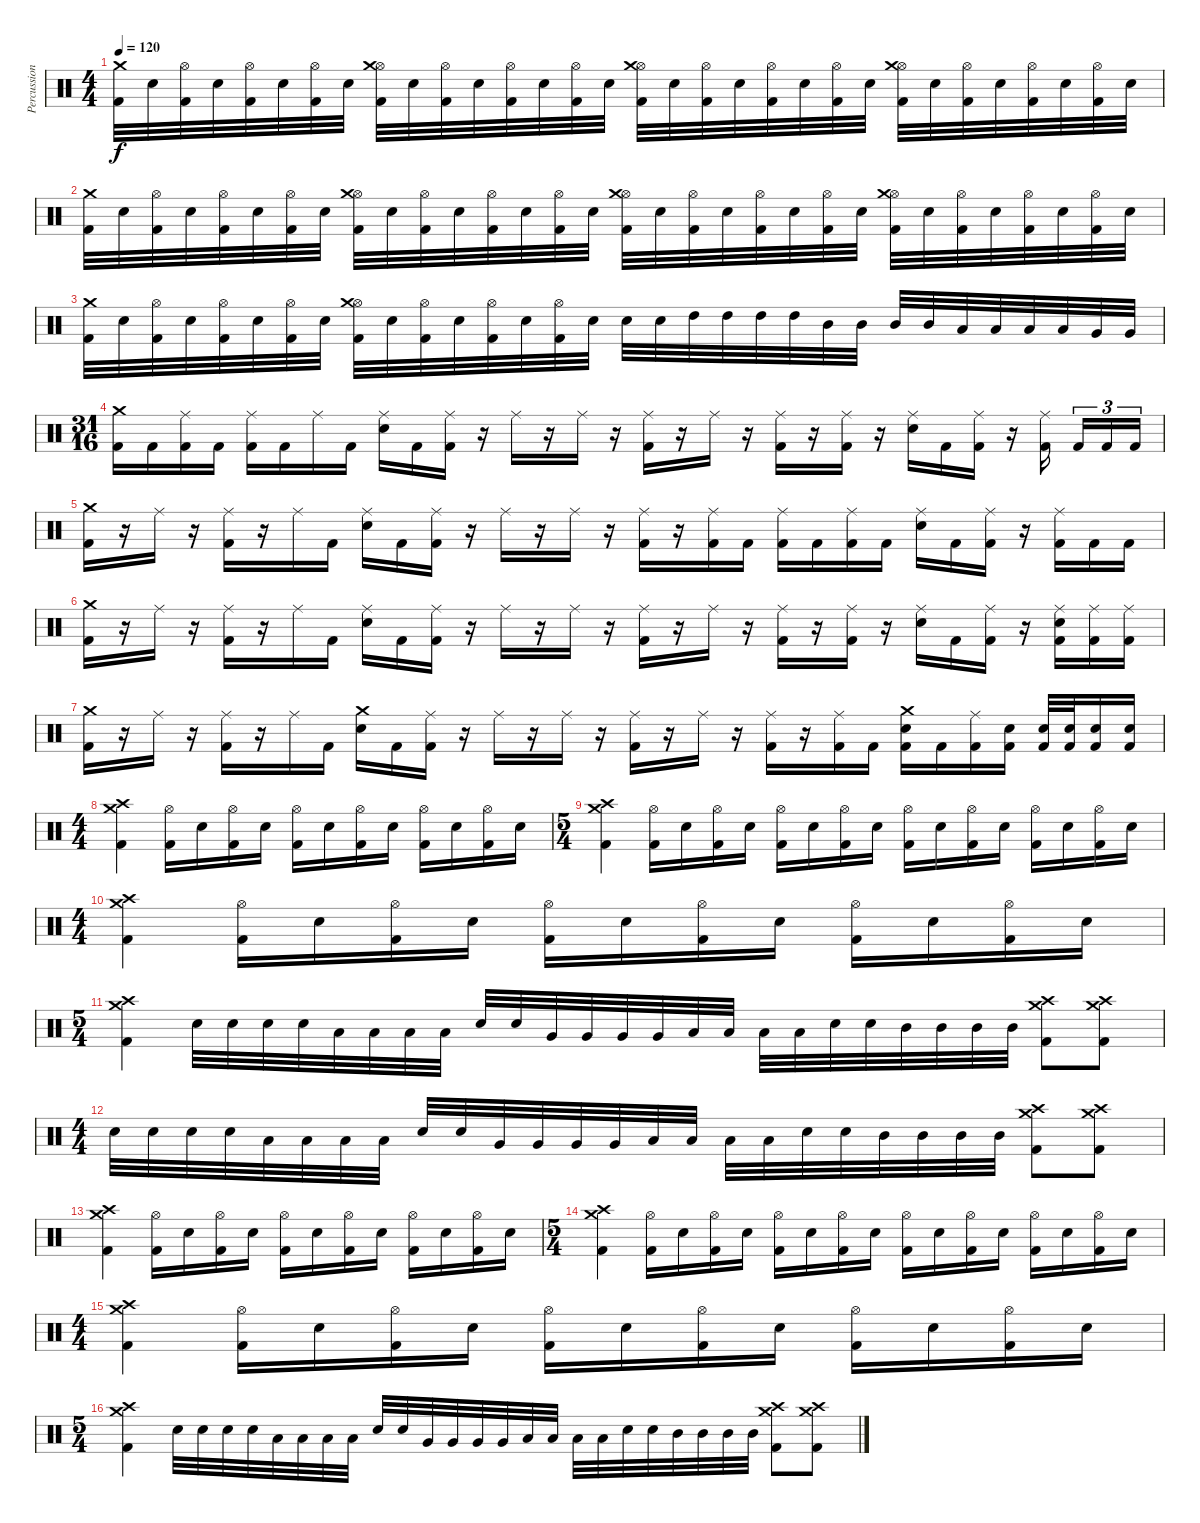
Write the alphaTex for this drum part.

\track ("Percussion" "Percussion") {instrument percussion}
\staff {score}
\articulation defaults
\ts (4 4)
\tempo 120
\clef neutral
\ks c
("Kick (hit) 2" "Crash medium (hit)").32{dy f} "Electric Snare (hit)".32 ("Kick (hit) 2" "Hi-Hat (open)").32 "Electric Snare (hit)".32 ("Kick (hit) 2" "Hi-Hat (open)").32 "Electric Snare (hit)".32 ("Kick (hit) 2" "Hi-Hat (open)").32 "Electric Snare (hit)".32 ("Kick (hit) 2" "Hi-Hat (open)" "Crash medium (hit)").32 "Electric Snare (hit)".32 ("Kick (hit) 2" "Hi-Hat (open)").32 "Electric Snare (hit)".32 ("Kick (hit) 2" "Hi-Hat (open)").32 "Electric Snare (hit)".32 ("Kick (hit) 2" "Hi-Hat (open)").32 "Electric Snare (hit)".32 ("Kick (hit) 2" "Hi-Hat (open)" "Crash medium (hit)").32 "Electric Snare (hit)".32 ("Kick (hit) 2" "Hi-Hat (open)").32 "Electric Snare (hit)".32 ("Kick (hit) 2" "Hi-Hat (open)").32 "Electric Snare (hit)".32 ("Kick (hit) 2" "Hi-Hat (open)").32 "Electric Snare (hit)".32 ("Kick (hit) 2" "Hi-Hat (open)" "Crash medium (hit)").32 "Electric Snare (hit)".32 ("Kick (hit) 2" "Hi-Hat (open)").32 "Electric Snare (hit)".32 ("Kick (hit) 2" "Hi-Hat (open)").32 "Electric Snare (hit)".32 ("Kick (hit) 2" "Hi-Hat (open)").32 "Electric Snare (hit)".32 |
("Kick (hit) 2" "Crash medium (hit)").32 "Electric Snare (hit)".32 ("Kick (hit) 2" "Hi-Hat (open)").32 "Electric Snare (hit)".32 ("Kick (hit) 2" "Hi-Hat (open)").32 "Electric Snare (hit)".32 ("Kick (hit) 2" "Hi-Hat (open)").32 "Electric Snare (hit)".32 ("Kick (hit) 2" "Hi-Hat (open)" "Crash medium (hit)").32 "Electric Snare (hit)".32 ("Kick (hit) 2" "Hi-Hat (open)").32 "Electric Snare (hit)".32 ("Kick (hit) 2" "Hi-Hat (open)").32 "Electric Snare (hit)".32 ("Kick (hit) 2" "Hi-Hat (open)").32 "Electric Snare (hit)".32 ("Kick (hit) 2" "Hi-Hat (open)" "Crash medium (hit)").32 "Electric Snare (hit)".32 ("Kick (hit) 2" "Hi-Hat (open)").32 "Electric Snare (hit)".32 ("Kick (hit) 2" "Hi-Hat (open)").32 "Electric Snare (hit)".32 ("Kick (hit) 2" "Hi-Hat (open)").32 "Electric Snare (hit)".32 ("Kick (hit) 2" "Hi-Hat (open)" "Crash medium (hit)").32 "Electric Snare (hit)".32 ("Kick (hit) 2" "Hi-Hat (open)").32 "Electric Snare (hit)".32 ("Kick (hit) 2" "Hi-Hat (open)").32 "Electric Snare (hit)".32 ("Kick (hit) 2" "Hi-Hat (open)").32 "Electric Snare (hit)".32 |
("Kick (hit) 2" "Crash medium (hit)").32 "Electric Snare (hit)".32 ("Kick (hit) 2" "Hi-Hat (open)").32 "Electric Snare (hit)".32 ("Kick (hit) 2" "Hi-Hat (open)").32 "Electric Snare (hit)".32 ("Kick (hit) 2" "Hi-Hat (open)").32 "Electric Snare (hit)".32 ("Kick (hit) 2" "Hi-Hat (open)" "Crash medium (hit)").32 "Electric Snare (hit)".32 ("Kick (hit) 2" "Hi-Hat (open)").32 "Electric Snare (hit)".32 ("Kick (hit) 2" "Hi-Hat (open)").32 "Electric Snare (hit)".32 ("Kick (hit) 2" "Hi-Hat (open)").32 "Electric Snare (hit)".32 "Electric Snare (hit)".32 "Electric Snare (hit)".32 "High Tom (hit)".32 "High Tom (hit)".32 "High Tom (hit)".32 "High Tom (hit)".32 "Mid Tom (hit)".32 "Mid Tom (hit)".32 "Mid Tom (hit)".32 "Mid Tom (hit)".32 "Low Tom (hit)".32 "Low Tom (hit)".32 "Low Tom (hit)".32 "Low Tom (hit)".32 "Very Low Tom (hit)".32 "Very Low Tom (hit)".32 |
\ts (31 16)
("Kick (hit) 2" "Crash medium (hit)").16 "Kick (hit) 2".16 ("Kick (hit) 2" "Ride (middle)").16 "Kick (hit) 2".16 ("Kick (hit) 2" "Ride (middle)").16 "Kick (hit) 2".16 "Ride (middle)".16 "Kick (hit) 2".16 ("Electric Snare (hit)" "Ride (middle)").16 "Kick (hit) 2".16 ("Kick (hit) 2" "Ride (middle)").16 r.16 "Ride (middle)".16 r.16 "Ride (middle)".16 r.16 ("Kick (hit) 2" "Ride (middle)").16 r.16 "Ride (middle)".16 r.16 ("Kick (hit) 2" "Ride (middle)").16 r.16 ("Kick (hit) 2" "Ride (middle)").16 r.16 ("Electric Snare (hit)" "Ride (middle)").16 "Kick (hit) 2".16 ("Kick (hit) 2" "Ride (middle)").16 r.16 ("Kick (hit) 2" "Ride (middle)").16 "Kick (hit) 2".16{tu (3 2)} "Kick (hit) 2".16{tu (3 2)} "Kick (hit) 2".16{tu (3 2)} |
("Kick (hit) 2" "Crash medium (hit)").16 r.16 "Ride (middle)".16 r.16 ("Kick (hit) 2" "Ride (middle)").16 r.16 "Ride (middle)".16 "Kick (hit) 2".16 ("Electric Snare (hit)" "Ride (middle)").16 "Kick (hit) 2".16 ("Kick (hit) 2" "Ride (middle)").16 r.16 "Ride (middle)".16 r.16 "Ride (middle)".16 r.16 ("Kick (hit) 2" "Ride (middle)").16 r.16 ("Kick (hit) 2" "Ride (middle)").16 "Kick (hit) 2".16 ("Kick (hit) 2" "Ride (middle)").16 "Kick (hit) 2".16 ("Kick (hit) 2" "Ride (middle)").16 "Kick (hit) 2".16 ("Electric Snare (hit)" "Ride (middle)").16 "Kick (hit) 2".16 ("Kick (hit) 2" "Ride (middle)").16 r.16 ("Kick (hit) 2" "Ride (middle)").16 "Kick (hit) 2".16 "Kick (hit) 2".16 |
("Kick (hit) 2" "Crash medium (hit)").16 r.16 "Ride (middle)".16 r.16 ("Kick (hit) 2" "Ride (middle)").16 r.16 "Ride (middle)".16 "Kick (hit) 2".16 ("Electric Snare (hit)" "Ride (middle)").16 "Kick (hit) 2".16 ("Kick (hit) 2" "Ride (middle)").16 r.16 "Ride (middle)".16 r.16 "Ride (middle)".16 r.16 ("Kick (hit) 2" "Ride (middle)").16 r.16 "Ride (middle)".16 r.16 ("Kick (hit) 2" "Ride (middle)").16 r.16 ("Kick (hit) 2" "Ride (middle)").16 r.16 ("Electric Snare (hit)" "Ride (middle)").16 "Kick (hit) 2".16 ("Kick (hit) 2" "Ride (middle)").16 r.16 ("Kick (hit) 2" "Electric Snare (hit)" "Ride (middle)").16 ("Kick (hit) 2" "Ride (middle)").16 ("Kick (hit) 2" "Ride (middle)").16 |
("Kick (hit) 2" "Crash medium (hit)").16 r.16 "Ride (middle)".16 r.16 ("Kick (hit) 2" "Ride (middle)").16 r.16 "Ride (middle)".16 "Kick (hit) 2".16 ("Electric Snare (hit)" "Crash medium (hit)").16 "Kick (hit) 2".16 ("Kick (hit) 2" "Ride (middle)").16 r.16 "Ride (middle)".16 r.16 "Ride (middle)".16 r.16 ("Kick (hit) 2" "Ride (middle)").16 r.16 "Ride (middle)".16 r.16 ("Kick (hit) 2" "Ride (middle)").16 r.16 ("Kick (hit) 2" "Ride (middle)").16 "Kick (hit) 2".16 ("Kick (hit) 2" "Electric Snare (hit)" "Crash medium (hit)").16 "Kick (hit) 2".16 ("Kick (hit) 2" "Ride (middle)").16 ("Kick (hit) 2" "Electric Snare (hit)").16 ("Kick (hit) 2" "Electric Snare (hit)").32 ("Kick (hit) 2" "Electric Snare (hit)").32 ("Kick (hit) 2" "Electric Snare (hit)").16 ("Kick (hit) 2" "Electric Snare (hit)").16 |
\ts (4 4)
("Kick (hit) 2" "Crash high (hit)" "Crash medium (hit)").4 ("Kick (hit) 2" "Hi-Hat (open)").16 "Electric Snare (hit)".16 ("Kick (hit) 2" "Hi-Hat (open)").16 "Electric Snare (hit)".16 ("Kick (hit) 2" "Hi-Hat (open)").16 "Electric Snare (hit)".16 ("Kick (hit) 2" "Hi-Hat (open)").16 "Electric Snare (hit)".16 ("Kick (hit) 2" "Hi-Hat (open)").16 "Electric Snare (hit)".16 ("Kick (hit) 2" "Hi-Hat (open)").16 "Electric Snare (hit)".16 |
\ts (5 4)
("Kick (hit) 2" "Crash high (hit)" "Crash medium (hit)").4 ("Kick (hit) 2" "Hi-Hat (open)").16 "Electric Snare (hit)".16 ("Kick (hit) 2" "Hi-Hat (open)").16 "Electric Snare (hit)".16 ("Kick (hit) 2" "Hi-Hat (open)").16 "Electric Snare (hit)".16 ("Kick (hit) 2" "Hi-Hat (open)").16 "Electric Snare (hit)".16 ("Kick (hit) 2" "Hi-Hat (open)").16 "Electric Snare (hit)".16 ("Kick (hit) 2" "Hi-Hat (open)").16 "Electric Snare (hit)".16 ("Kick (hit) 2" "Hi-Hat (open)").16 "Electric Snare (hit)".16 ("Kick (hit) 2" "Hi-Hat (open)").16 "Electric Snare (hit)".16 |
\ts (4 4)
("Kick (hit) 2" "Crash high (hit)" "Crash medium (hit)").4 ("Kick (hit) 2" "Hi-Hat (open)").16 "Electric Snare (hit)".16 ("Kick (hit) 2" "Hi-Hat (open)").16 "Electric Snare (hit)".16 ("Kick (hit) 2" "Hi-Hat (open)").16 "Electric Snare (hit)".16 ("Kick (hit) 2" "Hi-Hat (open)").16 "Electric Snare (hit)".16 ("Kick (hit) 2" "Hi-Hat (open)").16 "Electric Snare (hit)".16 ("Kick (hit) 2" "Hi-Hat (open)").16 "Electric Snare (hit)".16 |
\ts (5 4)
("Kick (hit) 2" "Crash high (hit)" "Crash medium (hit)").4 "Electric Snare (hit)".32 "Electric Snare (hit)".32 "Electric Snare (hit)".32 "Electric Snare (hit)".32 "Low Floor Tom (hit)".32 "Low Floor Tom (hit)".32 "Low Floor Tom (hit)".32 "Low Floor Tom (hit)".32 "Electric Snare (hit)".32 "Electric Snare (hit)".32 "Very Low Tom (hit)".32 "Very Low Tom (hit)".32 "Very Low Tom (hit)".32 "Very Low Tom (hit)".32 "Low Tom (hit)".32 "Low Tom (hit)".32 "Low Tom (hit)".32 "Low Tom (hit)".32 "Electric Snare (hit)".32 "Electric Snare (hit)".32 "Mid Tom (hit)".32 "Mid Tom (hit)".32 "Mid Tom (hit)".32 "Mid Tom (hit)".32 ("Kick (hit) 2" "Crash high (hit)" "Crash medium (hit)").8 ("Kick (hit) 2" "Crash high (hit)" "Crash medium (hit)").8 |
\ts (4 4)
"Electric Snare (hit)".32 "Electric Snare (hit)".32 "Electric Snare (hit)".32 "Electric Snare (hit)".32 "Low Floor Tom (hit)".32 "Low Floor Tom (hit)".32 "Low Floor Tom (hit)".32 "Low Floor Tom (hit)".32 "Electric Snare (hit)".32 "Electric Snare (hit)".32 "Very Low Tom (hit)".32 "Very Low Tom (hit)".32 "Very Low Tom (hit)".32 "Very Low Tom (hit)".32 "Low Tom (hit)".32 "Low Tom (hit)".32 "Low Tom (hit)".32 "Low Tom (hit)".32 "Electric Snare (hit)".32 "Electric Snare (hit)".32 "Mid Tom (hit)".32 "Mid Tom (hit)".32 "Mid Tom (hit)".32 "Mid Tom (hit)".32 ("Kick (hit) 2" "Crash high (hit)" "Crash medium (hit)").8 ("Kick (hit) 2" "Crash high (hit)" "Crash medium (hit)").8 |
("Kick (hit) 2" "Crash high (hit)" "Crash medium (hit)").4 ("Kick (hit) 2" "Hi-Hat (open)").16 "Electric Snare (hit)".16 ("Kick (hit) 2" "Hi-Hat (open)").16 "Electric Snare (hit)".16 ("Kick (hit) 2" "Hi-Hat (open)").16 "Electric Snare (hit)".16 ("Kick (hit) 2" "Hi-Hat (open)").16 "Electric Snare (hit)".16 ("Kick (hit) 2" "Hi-Hat (open)").16 "Electric Snare (hit)".16 ("Kick (hit) 2" "Hi-Hat (open)").16 "Electric Snare (hit)".16 |
\ts (5 4)
("Kick (hit) 2" "Crash high (hit)" "Crash medium (hit)").4 ("Kick (hit) 2" "Hi-Hat (open)").16 "Electric Snare (hit)".16 ("Kick (hit) 2" "Hi-Hat (open)").16 "Electric Snare (hit)".16 ("Kick (hit) 2" "Hi-Hat (open)").16 "Electric Snare (hit)".16 ("Kick (hit) 2" "Hi-Hat (open)").16 "Electric Snare (hit)".16 ("Kick (hit) 2" "Hi-Hat (open)").16 "Electric Snare (hit)".16 ("Kick (hit) 2" "Hi-Hat (open)").16 "Electric Snare (hit)".16 ("Kick (hit) 2" "Hi-Hat (open)").16 "Electric Snare (hit)".16 ("Kick (hit) 2" "Hi-Hat (open)").16 "Electric Snare (hit)".16 |
\ts (4 4)
("Kick (hit) 2" "Crash high (hit)" "Crash medium (hit)").4 ("Kick (hit) 2" "Hi-Hat (open)").16 "Electric Snare (hit)".16 ("Kick (hit) 2" "Hi-Hat (open)").16 "Electric Snare (hit)".16 ("Kick (hit) 2" "Hi-Hat (open)").16 "Electric Snare (hit)".16 ("Kick (hit) 2" "Hi-Hat (open)").16 "Electric Snare (hit)".16 ("Kick (hit) 2" "Hi-Hat (open)").16 "Electric Snare (hit)".16 ("Kick (hit) 2" "Hi-Hat (open)").16 "Electric Snare (hit)".16 |
\ts (5 4)
("Kick (hit) 2" "Crash high (hit)" "Crash medium (hit)").4 "Electric Snare (hit)".32 "Electric Snare (hit)".32 "Electric Snare (hit)".32 "Electric Snare (hit)".32 "Low Floor Tom (hit)".32 "Low Floor Tom (hit)".32 "Low Floor Tom (hit)".32 "Low Floor Tom (hit)".32 "Electric Snare (hit)".32 "Electric Snare (hit)".32 "Very Low Tom (hit)".32 "Very Low Tom (hit)".32 "Very Low Tom (hit)".32 "Very Low Tom (hit)".32 "Low Tom (hit)".32 "Low Tom (hit)".32 "Low Tom (hit)".32 "Low Tom (hit)".32 "Electric Snare (hit)".32 "Electric Snare (hit)".32 "Mid Tom (hit)".32 "Mid Tom (hit)".32 "Mid Tom (hit)".32 "Mid Tom (hit)".32 ("Kick (hit) 2" "Crash high (hit)" "Crash medium (hit)").8 ("Kick (hit) 2" "Crash high (hit)" "Crash medium (hit)").8
